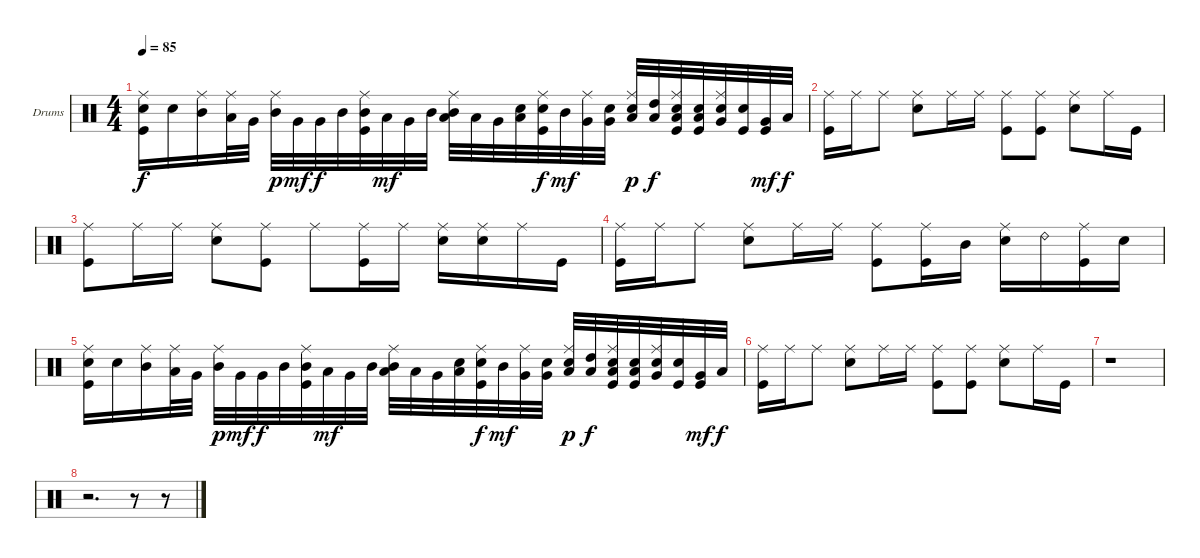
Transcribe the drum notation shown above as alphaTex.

\bracketExtendMode groupsimilarinstruments
\firstSystemTrackNameOrientation horizontal
\otherSystemsTrackNameOrientation horizontal
\track ("Drumkit" "Drums") {instrument percussion}
\staff {score}
\articulation defaults
\ts (4 4)
\tempo 85
\clef neutral
\ks c
("Snare (hit) 2" "Kick (hit)" "Ride (middle)").16{dy f} "Snare (hit) 2".16 ("Mid Tom (hit)" "Ride (middle)").16 ("Low Tom (hit)" "Ride (middle)").32 "Very Low Tom (hit)".32 ("Mid Tom (hit)" "Ride (middle)").32{dy p} "Very Low Tom (hit)".32{dy mf} "Very Low Tom (hit)".32{dy f} "Mid Tom (hit)".32 ("Kick (hit)" "Mid Tom (hit)" "Ride (middle)").32 "Low Tom (hit)".32{dy mf} "Very Low Tom (hit)".32 "Mid Tom (hit)".32 ("Low Tom (hit)" "Mid Tom (hit)" "Ride (middle)").32 "Low Tom (hit)".32 "Very Low Tom (hit)".32 ("Snare (hit) 2" "Low Tom (hit)").32 ("Kick (hit)" "Snare (hit) 2" "Ride (middle)").32{dy f} "Mid Tom (hit)".32{dy mf} ("Very Low Tom (hit)" "Ride (middle)").32 ("Snare (hit) 2" "Very Low Tom (hit)").32 ("Snare (hit) 2" "Low Tom (hit)" "Ride (middle)").32{dy p} ("Low Tom (hit)" "High Tom (hit)").32{dy f} ("Kick (hit)" "Low Tom (hit)" "Snare (hit) 2" "Ride (middle)").32 ("Kick (hit)" "Snare (hit) 2" "Low Tom (hit)").32 ("Snare (hit) 2" "Very Low Tom (hit)" "Ride (middle)").32 ("Kick (hit)" "Snare (hit) 2").32 ("Kick (hit)" "Very Low Tom (hit)").32{dy mf} "Low Tom (hit)".32{dy f} |
("Kick (hit)" "Ride (middle)").16 "Ride (middle)".16 "Ride (middle)".8 ("Snare (hit) 2" "Ride (middle)").8 "Ride (middle)".16 "Ride (middle)".16 ("Kick (hit)" "Ride (middle)").8 ("Kick (hit)" "Ride (middle)").8 ("Snare (hit) 2" "Ride (middle)").8 "Ride (middle)".16 "Kick (hit)".16 |
("Kick (hit)" "Ride (middle)").8 "Ride (middle)".16 "Ride (middle)".16 ("Snare (hit) 2" "Ride (middle)").8 ("Kick (hit)" "Ride (middle)").8 "Ride (middle)".8 ("Kick (hit)" "Ride (middle)").16 "Ride (middle)".16 ("Snare (hit) 2" "Ride (middle)").16 ("Snare (hit) 2" "Ride (middle)").16 "Ride (middle)".16 "Kick (hit)".16 |
("Kick (hit)" "Ride (middle)").16 "Ride (middle)".16 "Ride (middle)".8 ("Snare (hit) 2" "Ride (middle)").8 "Ride (middle)".16 "Ride (middle)".16 ("Kick (hit)" "Ride (middle)").8 ("Kick (hit)" "Ride (middle)").16 "Mid Tom (hit)".16 ("Snare (hit) 2" "Ride (middle)").16 "Ride (bell) 2".16 ("Kick (hit)" "Ride (middle)").16 "Snare (hit) 2".16 |
("Snare (hit) 2" "Kick (hit)" "Ride (middle)").16 "Snare (hit) 2".16 ("Mid Tom (hit)" "Ride (middle)").16 ("Low Tom (hit)" "Ride (middle)").32 "Very Low Tom (hit)".32 ("Mid Tom (hit)" "Ride (middle)").32{dy p} "Very Low Tom (hit)".32{dy mf} "Very Low Tom (hit)".32{dy f} "Mid Tom (hit)".32 ("Kick (hit)" "Mid Tom (hit)" "Ride (middle)").32 "Low Tom (hit)".32{dy mf} "Very Low Tom (hit)".32 "Mid Tom (hit)".32 ("Low Tom (hit)" "Mid Tom (hit)" "Ride (middle)").32 "Low Tom (hit)".32 "Very Low Tom (hit)".32 ("Snare (hit) 2" "Low Tom (hit)").32 ("Kick (hit)" "Snare (hit) 2" "Ride (middle)").32{dy f} "Mid Tom (hit)".32{dy mf} ("Very Low Tom (hit)" "Ride (middle)").32 ("Snare (hit) 2" "Very Low Tom (hit)").32 ("Snare (hit) 2" "Low Tom (hit)" "Ride (middle)").32{dy p} ("Low Tom (hit)" "High Tom (hit)").32{dy f} ("Kick (hit)" "Low Tom (hit)" "Snare (hit) 2" "Ride (middle)").32 ("Kick (hit)" "Snare (hit) 2" "Low Tom (hit)").32 ("Snare (hit) 2" "Very Low Tom (hit)" "Ride (middle)").32 ("Kick (hit)" "Snare (hit) 2").32 ("Kick (hit)" "Very Low Tom (hit)").32{dy mf} "Low Tom (hit)".32{dy f} |
("Kick (hit)" "Ride (middle)").16 "Ride (middle)".16 "Ride (middle)".8 ("Snare (hit) 2" "Ride (middle)").8 "Ride (middle)".16 "Ride (middle)".16 ("Kick (hit)" "Ride (middle)").8 ("Kick (hit)" "Ride (middle)").8 ("Snare (hit) 2" "Ride (middle)").8 "Ride (middle)".16 "Kick (hit)".16 |
r.1 |
r.2{d} r.8 r.8
